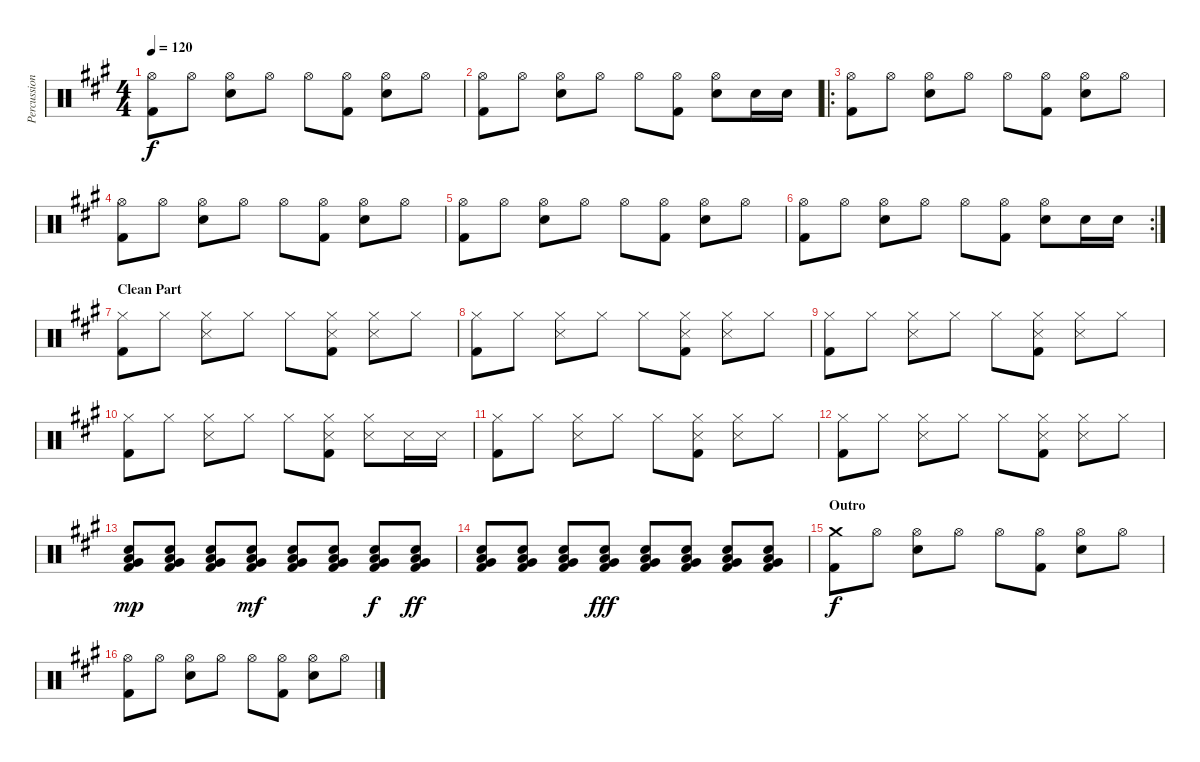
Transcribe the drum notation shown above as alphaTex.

\track ("Percussion" "Percussion") {instrument percussion}
\staff {score}
\articulation defaults
\ts (4 4)
\tempo 120
\clef neutral
\ks a
("Hi-Hat (open)" "Kick (hit) 2").8{dy f} "Hi-Hat (open)".8 ("Hi-Hat (open)" "Snare (hit) 2").8 "Hi-Hat (open)".8 "Hi-Hat (open)".8 ("Hi-Hat (open)" "Kick (hit) 2").8 ("Hi-Hat (open)" "Snare (hit) 2").8 "Hi-Hat (open)".8 |
("Hi-Hat (open)" "Kick (hit) 2").8 "Hi-Hat (open)".8 ("Hi-Hat (open)" "Snare (hit) 2").8 "Hi-Hat (open)".8 "Hi-Hat (open)".8 ("Hi-Hat (open)" "Kick (hit) 2").8 ("Hi-Hat (open)" "Snare (hit) 2").8 "Snare (hit) 2".16 "Snare (hit) 2".16 |
\ro
("Hi-Hat (open)" "Kick (hit) 2").8 "Hi-Hat (open)".8 ("Hi-Hat (open)" "Snare (hit) 2").8 "Hi-Hat (open)".8 "Hi-Hat (open)".8 ("Hi-Hat (open)" "Kick (hit) 2").8 ("Hi-Hat (open)" "Snare (hit) 2").8 "Hi-Hat (open)".8 |
("Hi-Hat (open)" "Kick (hit) 2").8 "Hi-Hat (open)".8 ("Hi-Hat (open)" "Snare (hit) 2").8 "Hi-Hat (open)".8 "Hi-Hat (open)".8 ("Hi-Hat (open)" "Kick (hit) 2").8 ("Hi-Hat (open)" "Snare (hit) 2").8 "Hi-Hat (open)".8 |
("Hi-Hat (open)" "Kick (hit) 2").8 "Hi-Hat (open)".8 ("Hi-Hat (open)" "Snare (hit) 2").8 "Hi-Hat (open)".8 "Hi-Hat (open)".8 ("Hi-Hat (open)" "Kick (hit) 2").8 ("Hi-Hat (open)" "Snare (hit) 2").8 "Hi-Hat (open)".8 |
\rc 2
("Hi-Hat (open)" "Kick (hit) 2").8 "Hi-Hat (open)".8 ("Hi-Hat (open)" "Snare (hit) 2").8 "Hi-Hat (open)".8 "Hi-Hat (open)".8 ("Hi-Hat (open)" "Kick (hit) 2").8 ("Hi-Hat (open)" "Snare (hit) 2").8 "Snare (hit) 2".16 "Snare (hit) 2".16 |
\section ("" "Clean Part")
("Hi-Hat (closed)" "Kick (hit) 2").8 "Hi-Hat (closed)".8 ("Hi-Hat (closed)" "Snare (side stick) 3").8 "Hi-Hat (closed)".8 "Hi-Hat (closed)".8 ("Hi-Hat (closed)" "Snare (side stick) 3" "Kick (hit) 2").8 ("Hi-Hat (closed)" "Snare (side stick) 3").8 "Hi-Hat (closed)".8 |
("Hi-Hat (closed)" "Kick (hit) 2").8 "Hi-Hat (closed)".8 ("Hi-Hat (closed)" "Snare (side stick) 3").8 "Hi-Hat (closed)".8 "Hi-Hat (closed)".8 ("Hi-Hat (closed)" "Snare (side stick) 3" "Kick (hit) 2").8 ("Hi-Hat (closed)" "Snare (side stick) 3").8 "Hi-Hat (closed)".8 |
("Hi-Hat (closed)" "Kick (hit) 2").8 "Hi-Hat (closed)".8 ("Hi-Hat (closed)" "Snare (side stick) 3").8 "Hi-Hat (closed)".8 "Hi-Hat (closed)".8 ("Hi-Hat (closed)" "Snare (side stick) 3" "Kick (hit) 2").8 ("Hi-Hat (closed)" "Snare (side stick) 3").8 "Hi-Hat (closed)".8 |
("Hi-Hat (closed)" "Kick (hit) 2").8 "Hi-Hat (closed)".8 ("Hi-Hat (closed)" "Snare (side stick) 3").8 "Hi-Hat (closed)".8 "Hi-Hat (closed)".8 ("Hi-Hat (closed)" "Snare (side stick) 3" "Kick (hit) 2").8 ("Hi-Hat (closed)" "Snare (side stick) 3").8 "Snare (side stick) 3".16 "Snare (side stick) 3".16 |
("Hi-Hat (closed)" "Kick (hit) 2").8 "Hi-Hat (closed)".8 ("Hi-Hat (closed)" "Snare (side stick) 3").8 "Hi-Hat (closed)".8 "Hi-Hat (closed)".8 ("Hi-Hat (closed)" "Snare (side stick) 3" "Kick (hit) 2").8 ("Hi-Hat (closed)" "Snare (side stick) 3").8 "Hi-Hat (closed)".8 |
("Hi-Hat (closed)" "Kick (hit) 2").8 "Hi-Hat (closed)".8 ("Hi-Hat (closed)" "Snare (side stick) 3").8 "Hi-Hat (closed)".8 "Hi-Hat (closed)".8 ("Hi-Hat (closed)" "Snare (side stick) 3" "Kick (hit) 2").8 ("Hi-Hat (closed)" "Snare (side stick) 3").8 "Hi-Hat (closed)".8 |
("Very Low Tom (hit)" "Low Floor Tom (hit)" "Snare (hit) 2" "Kick (hit) 2").8{dy mp} ("Very Low Tom (hit)" "Low Floor Tom (hit)" "Snare (hit) 2" "Kick (hit) 2").8 ("Very Low Tom (hit)" "Low Floor Tom (hit)" "Snare (hit) 2" "Kick (hit) 2").8 ("Very Low Tom (hit)" "Low Floor Tom (hit)" "Snare (hit) 2" "Kick (hit) 2").8{dy mf} ("Very Low Tom (hit)" "Low Floor Tom (hit)" "Snare (hit) 2" "Kick (hit) 2").8 ("Very Low Tom (hit)" "Low Floor Tom (hit)" "Snare (hit) 2" "Kick (hit) 2").8 ("Very Low Tom (hit)" "Low Floor Tom (hit)" "Snare (hit) 2" "Kick (hit) 2").8{dy f} ("Very Low Tom (hit)" "Low Floor Tom (hit)" "Snare (hit) 2" "Kick (hit) 2").8{dy ff} |
("Very Low Tom (hit)" "Low Floor Tom (hit)" "Snare (hit) 2" "Kick (hit) 2").8 ("Very Low Tom (hit)" "Low Floor Tom (hit)" "Snare (hit) 2" "Kick (hit) 2").8 ("Very Low Tom (hit)" "Low Floor Tom (hit)" "Snare (hit) 2" "Kick (hit) 2").8 ("Very Low Tom (hit)" "Low Floor Tom (hit)" "Snare (hit) 2" "Kick (hit) 2").8{dy fff} ("Very Low Tom (hit)" "Low Floor Tom (hit)" "Snare (hit) 2" "Kick (hit) 2").8 ("Very Low Tom (hit)" "Low Floor Tom (hit)" "Snare (hit) 2" "Kick (hit) 2").8 ("Very Low Tom (hit)" "Low Floor Tom (hit)" "Snare (hit) 2" "Kick (hit) 2").8 ("Very Low Tom (hit)" "Low Floor Tom (hit)" "Snare (hit) 2" "Kick (hit) 2").8 |
\section ("" "Outro")
("Crash medium (hit)" "Kick (hit) 2").8{dy f} "Hi-Hat (open)".8 ("Hi-Hat (open)" "Snare (hit) 2").8 "Hi-Hat (open)".8 "Hi-Hat (open)".8 ("Hi-Hat (open)" "Kick (hit) 2").8 ("Hi-Hat (open)" "Snare (hit) 2").8 "Hi-Hat (open)".8 |
("Hi-Hat (open)" "Kick (hit) 2").8 "Hi-Hat (open)".8 ("Hi-Hat (open)" "Snare (hit) 2").8 "Hi-Hat (open)".8 "Hi-Hat (open)".8 ("Hi-Hat (open)" "Kick (hit) 2").8 ("Hi-Hat (open)" "Snare (hit) 2").8 "Hi-Hat (open)".8
